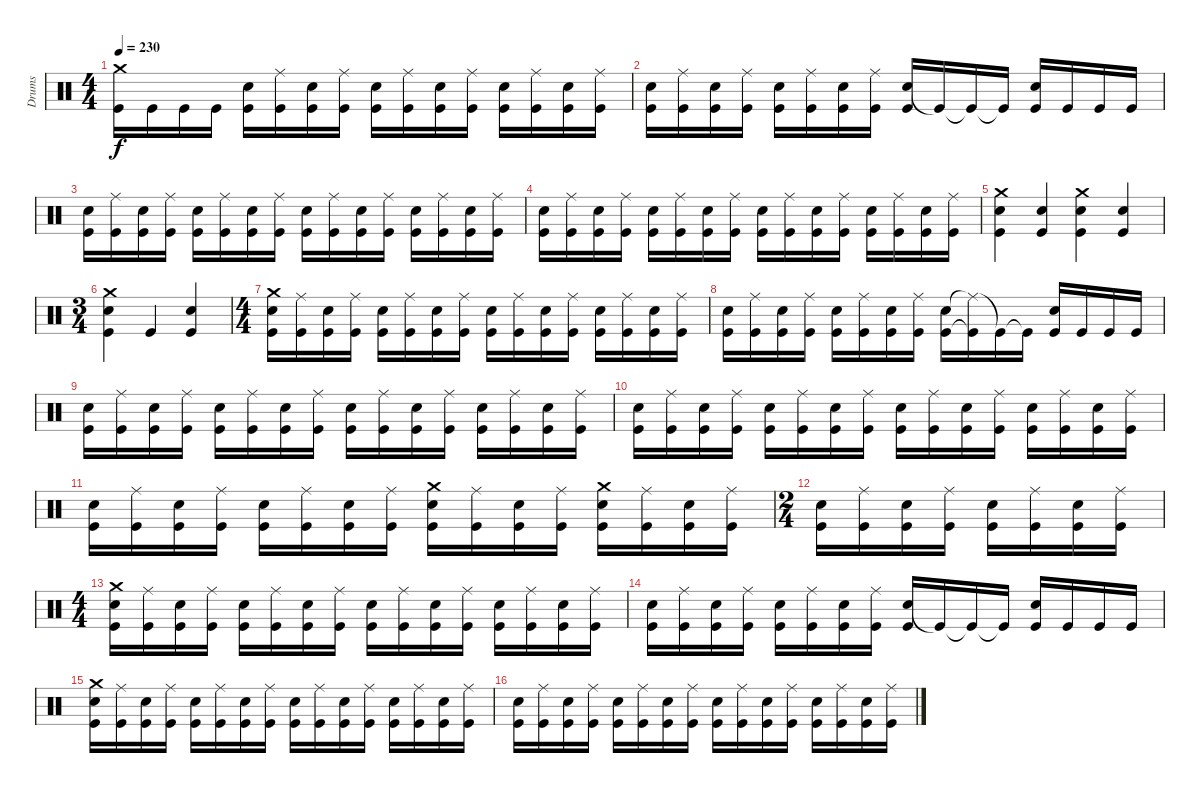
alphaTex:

\track ("Drums" "Drums") {instrument percussion}
\staff {score}
\articulation defaults
\ts (4 4)
\tempo 230
\clef neutral
\ks c
("Crash medium (hit)" "Kick (hit)").16{dy f} "Kick (hit)".16 "Kick (hit)".16 "Kick (hit)".16 ("Electric Snare (hit)" "Kick (hit)").16 ("Ride (middle)" "Kick (hit)").16 ("Electric Snare (hit)" "Kick (hit)").16 ("Ride (middle)" "Kick (hit)").16 ("Electric Snare (hit)" "Kick (hit)").16 ("Ride (middle)" "Kick (hit)").16 ("Electric Snare (hit)" "Kick (hit)").16 ("Ride (middle)" "Kick (hit)").16 ("Electric Snare (hit)" "Kick (hit)").16 ("Ride (middle)" "Kick (hit)").16 ("Electric Snare (hit)" "Kick (hit)").16 ("Ride (middle)" "Kick (hit)").16 |
("Electric Snare (hit)" "Kick (hit)").16 ("Ride (middle)" "Kick (hit)").16 ("Electric Snare (hit)" "Kick (hit)").16 ("Ride (middle)" "Kick (hit)").16 ("Electric Snare (hit)" "Kick (hit)").16 ("Ride (middle)" "Kick (hit)").16 ("Electric Snare (hit)" "Kick (hit)").16 ("Ride (middle)" "Kick (hit)").16 ("Electric Snare (hit)" "Kick (hit)").16 "Kick (hit)"{t}.16 "Kick (hit)"{t}.16 "Kick (hit)"{t}.16 ("Electric Snare (hit)" "Kick (hit)").16 "Kick (hit)".16 "Kick (hit)".16 "Kick (hit)".16 |
("Electric Snare (hit)" "Kick (hit)").16 ("Ride (middle)" "Kick (hit)").16 ("Electric Snare (hit)" "Kick (hit)").16 ("Ride (middle)" "Kick (hit)").16 ("Electric Snare (hit)" "Kick (hit)").16 ("Ride (middle)" "Kick (hit)").16 ("Electric Snare (hit)" "Kick (hit)").16 ("Ride (middle)" "Kick (hit)").16 ("Electric Snare (hit)" "Kick (hit)").16 ("Ride (middle)" "Kick (hit)").16 ("Electric Snare (hit)" "Kick (hit)").16 ("Ride (middle)" "Kick (hit)").16 ("Electric Snare (hit)" "Kick (hit)").16 ("Ride (middle)" "Kick (hit)").16 ("Electric Snare (hit)" "Kick (hit)").16 ("Ride (middle)" "Kick (hit)").16 |
("Electric Snare (hit)" "Kick (hit)").16 ("Ride (middle)" "Kick (hit)").16 ("Electric Snare (hit)" "Kick (hit)").16 ("Ride (middle)" "Kick (hit)").16 ("Electric Snare (hit)" "Kick (hit)").16 ("Ride (middle)" "Kick (hit)").16 ("Electric Snare (hit)" "Kick (hit)").16 ("Ride (middle)" "Kick (hit)").16 ("Electric Snare (hit)" "Kick (hit)").16 ("Ride (middle)" "Kick (hit)").16 ("Electric Snare (hit)" "Kick (hit)").16 ("Ride (middle)" "Kick (hit)").16 ("Electric Snare (hit)" "Kick (hit)").16 ("Ride (middle)" "Kick (hit)").16 ("Electric Snare (hit)" "Kick (hit)").16 ("Ride (middle)" "Kick (hit)").16 |
("Crash medium (hit)" "Electric Snare (hit)" "Kick (hit)").4 ("Electric Snare (hit)" "Kick (hit)").4 ("Crash medium (hit)" "Electric Snare (hit)" "Kick (hit)").4 ("Electric Snare (hit)" "Kick (hit)").4 |
\ts (3 4)
("Crash medium (hit)" "Electric Snare (hit)" "Kick (hit)").4 "Kick (hit)".4 ("Electric Snare (hit)" "Kick (hit)").4 |
\ts (4 4)
("Crash medium (hit)" "Electric Snare (hit)" "Kick (hit)").16 ("Ride (middle)" "Kick (hit)").16 ("Electric Snare (hit)" "Kick (hit)").16 ("Ride (middle)" "Kick (hit)").16 ("Electric Snare (hit)" "Kick (hit)").16 ("Ride (middle)" "Kick (hit)").16 ("Electric Snare (hit)" "Kick (hit)").16 ("Ride (middle)" "Kick (hit)").16 ("Electric Snare (hit)" "Kick (hit)").16 ("Ride (middle)" "Kick (hit)").16 ("Electric Snare (hit)" "Kick (hit)").16 ("Ride (middle)" "Kick (hit)").16 ("Electric Snare (hit)" "Kick (hit)").16 ("Ride (middle)" "Kick (hit)").16 ("Electric Snare (hit)" "Kick (hit)").16 ("Ride (middle)" "Kick (hit)").16 |
("Electric Snare (hit)" "Kick (hit)").16 ("Ride (middle)" "Kick (hit)").16 ("Electric Snare (hit)" "Kick (hit)").16 ("Ride (middle)" "Kick (hit)").16 ("Electric Snare (hit)" "Kick (hit)").16 ("Ride (middle)" "Kick (hit)").16 ("Electric Snare (hit)" "Kick (hit)").16 ("Ride (middle)" "Kick (hit)").16 ("Electric Snare (hit)" "Kick (hit)").16 ("Ride (middle)"{t} "Kick (hit)"{t}).16 "Kick (hit)"{t}.16 "Kick (hit)"{t}.16 ("Electric Snare (hit)" "Kick (hit)").16 "Kick (hit)".16 "Kick (hit)".16 "Kick (hit)".16 |
("Electric Snare (hit)" "Kick (hit)").16 ("Ride (middle)" "Kick (hit)").16 ("Electric Snare (hit)" "Kick (hit)").16 ("Ride (middle)" "Kick (hit)").16 ("Electric Snare (hit)" "Kick (hit)").16 ("Ride (middle)" "Kick (hit)").16 ("Electric Snare (hit)" "Kick (hit)").16 ("Ride (middle)" "Kick (hit)").16 ("Electric Snare (hit)" "Kick (hit)").16 ("Ride (middle)" "Kick (hit)").16 ("Electric Snare (hit)" "Kick (hit)").16 ("Ride (middle)" "Kick (hit)").16 ("Electric Snare (hit)" "Kick (hit)").16 ("Ride (middle)" "Kick (hit)").16 ("Electric Snare (hit)" "Kick (hit)").16 ("Ride (middle)" "Kick (hit)").16 |
("Electric Snare (hit)" "Kick (hit)").16 ("Ride (middle)" "Kick (hit)").16 ("Electric Snare (hit)" "Kick (hit)").16 ("Ride (middle)" "Kick (hit)").16 ("Electric Snare (hit)" "Kick (hit)").16 ("Ride (middle)" "Kick (hit)").16 ("Electric Snare (hit)" "Kick (hit)").16 ("Ride (middle)" "Kick (hit)").16 ("Electric Snare (hit)" "Kick (hit)").16 ("Ride (middle)" "Kick (hit)").16 ("Electric Snare (hit)" "Kick (hit)").16 ("Ride (middle)" "Kick (hit)").16 ("Electric Snare (hit)" "Kick (hit)").16 ("Ride (middle)" "Kick (hit)").16 ("Electric Snare (hit)" "Kick (hit)").16 ("Ride (middle)" "Kick (hit)").16 |
("Electric Snare (hit)" "Kick (hit)").16 ("Ride (middle)" "Kick (hit)").16 ("Electric Snare (hit)" "Kick (hit)").16 ("Ride (middle)" "Kick (hit)").16 ("Electric Snare (hit)" "Kick (hit)").16 ("Ride (middle)" "Kick (hit)").16 ("Electric Snare (hit)" "Kick (hit)").16 ("Ride (middle)" "Kick (hit)").16 ("Crash medium (hit)" "Electric Snare (hit)" "Kick (hit)").16 ("Ride (middle)" "Kick (hit)").16 ("Electric Snare (hit)" "Kick (hit)").16 ("Ride (middle)" "Kick (hit)").16 ("Crash medium (hit)" "Electric Snare (hit)" "Kick (hit)").16 ("Ride (middle)" "Kick (hit)").16 ("Electric Snare (hit)" "Kick (hit)").16 ("Ride (middle)" "Kick (hit)").16 |
\ts (2 4)
("Electric Snare (hit)" "Kick (hit)").16 ("Ride (middle)" "Kick (hit)").16 ("Electric Snare (hit)" "Kick (hit)").16 ("Ride (middle)" "Kick (hit)").16 ("Electric Snare (hit)" "Kick (hit)").16 ("Ride (middle)" "Kick (hit)").16 ("Electric Snare (hit)" "Kick (hit)").16 ("Ride (middle)" "Kick (hit)").16 |
\ts (4 4)
("Crash medium (hit)" "Electric Snare (hit)" "Kick (hit)").16 ("Ride (middle)" "Kick (hit)").16 ("Electric Snare (hit)" "Kick (hit)").16 ("Ride (middle)" "Kick (hit)").16 ("Electric Snare (hit)" "Kick (hit)").16 ("Ride (middle)" "Kick (hit)").16 ("Electric Snare (hit)" "Kick (hit)").16 ("Ride (middle)" "Kick (hit)").16 ("Electric Snare (hit)" "Kick (hit)").16 ("Ride (middle)" "Kick (hit)").16 ("Electric Snare (hit)" "Kick (hit)").16 ("Ride (middle)" "Kick (hit)").16 ("Electric Snare (hit)" "Kick (hit)").16 ("Ride (middle)" "Kick (hit)").16 ("Electric Snare (hit)" "Kick (hit)").16 ("Ride (middle)" "Kick (hit)").16 |
("Electric Snare (hit)" "Kick (hit)").16 ("Ride (middle)" "Kick (hit)").16 ("Electric Snare (hit)" "Kick (hit)").16 ("Ride (middle)" "Kick (hit)").16 ("Electric Snare (hit)" "Kick (hit)").16 ("Ride (middle)" "Kick (hit)").16 ("Electric Snare (hit)" "Kick (hit)").16 ("Ride (middle)" "Kick (hit)").16 ("Electric Snare (hit)" "Kick (hit)").16 "Kick (hit)"{t}.16 "Kick (hit)"{t}.16 "Kick (hit)"{t}.16 ("Electric Snare (hit)" "Kick (hit)").16 "Kick (hit)".16 "Kick (hit)".16 "Kick (hit)".16 |
("Crash medium (hit)" "Electric Snare (hit)" "Kick (hit)").16 ("Ride (middle)" "Kick (hit)").16 ("Electric Snare (hit)" "Kick (hit)").16 ("Ride (middle)" "Kick (hit)").16 ("Electric Snare (hit)" "Kick (hit)").16 ("Ride (middle)" "Kick (hit)").16 ("Electric Snare (hit)" "Kick (hit)").16 ("Ride (middle)" "Kick (hit)").16 ("Electric Snare (hit)" "Kick (hit)").16 ("Ride (middle)" "Kick (hit)").16 ("Electric Snare (hit)" "Kick (hit)").16 ("Ride (middle)" "Kick (hit)").16 ("Electric Snare (hit)" "Kick (hit)").16 ("Ride (middle)" "Kick (hit)").16 ("Electric Snare (hit)" "Kick (hit)").16 ("Ride (middle)" "Kick (hit)").16 |
("Electric Snare (hit)" "Kick (hit)").16 ("Ride (middle)" "Kick (hit)").16 ("Electric Snare (hit)" "Kick (hit)").16 ("Ride (middle)" "Kick (hit)").16 ("Electric Snare (hit)" "Kick (hit)").16 ("Ride (middle)" "Kick (hit)").16 ("Electric Snare (hit)" "Kick (hit)").16 ("Ride (middle)" "Kick (hit)").16 ("Electric Snare (hit)" "Kick (hit)").16 ("Ride (middle)" "Kick (hit)").16 ("Electric Snare (hit)" "Kick (hit)").16 ("Ride (middle)" "Kick (hit)").16 ("Electric Snare (hit)" "Kick (hit)").16 ("Ride (middle)" "Kick (hit)").16 ("Electric Snare (hit)" "Kick (hit)").16 ("Ride (middle)" "Kick (hit)").16
